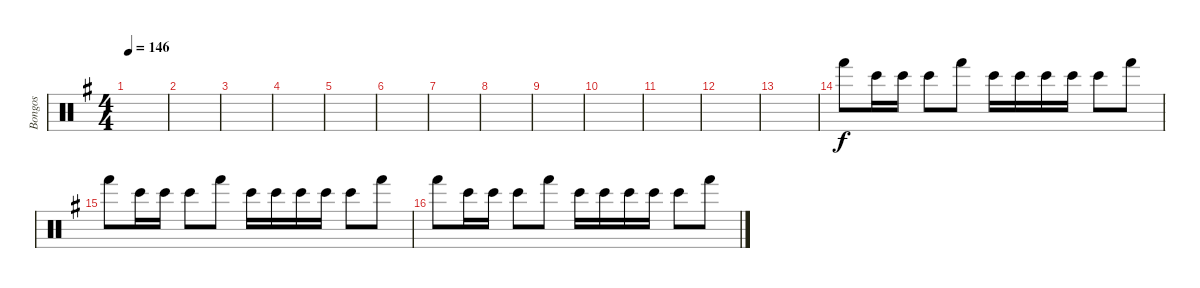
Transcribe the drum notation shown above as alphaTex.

\track ("Bongos" "Bongos") {instrument percussion}
\staff {score}
\articulation defaults
\ts (4 4)
\tempo 146
\clef neutral
\ks g
|
|
|
|
|
|
|
|
|
|
|
|
|
"Hand (hit)".8 "Bongo High (hit)".16 "Bongo High (hit)".16 "Bongo High (hit)".8 "Hand (hit)".8 "Bongo High (hit)".16 "Bongo High (hit)".16 "Bongo High (hit)".16 "Bongo High (hit)".16 "Bongo High (hit)".8 "Hand (hit)".8 |
"Hand (hit)".8 "Bongo High (hit)".16 "Bongo High (hit)".16 "Bongo High (hit)".8 "Hand (hit)".8 "Bongo High (hit)".16 "Bongo High (hit)".16 "Bongo High (hit)".16 "Bongo High (hit)".16 "Bongo High (hit)".8 "Hand (hit)".8 |
"Hand (hit)".8 "Bongo High (hit)".16 "Bongo High (hit)".16 "Bongo High (hit)".8 "Hand (hit)".8 "Bongo High (hit)".16 "Bongo High (hit)".16 "Bongo High (hit)".16 "Bongo High (hit)".16 "Bongo High (hit)".8 "Hand (hit)".8
